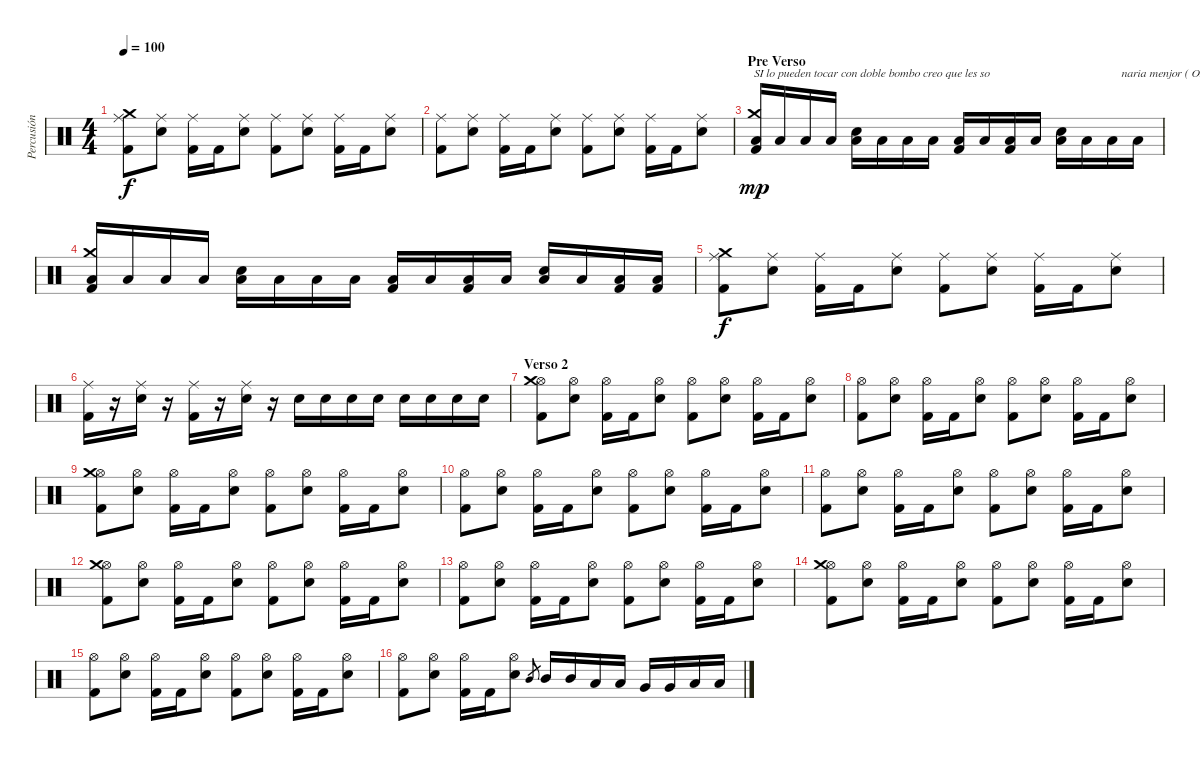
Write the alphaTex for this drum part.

\track ("Percusión" "Percusión") {instrument percussion}
\staff {score}
\articulation defaults
\ts (4 4)
\tempo 100
\clef neutral
\ks c
("Kick (hit) 2" "Ride (middle)" "Crash medium (hit)").8{dy f} ("Snare (hit) 2" "Ride (middle)").8 ("Kick (hit) 2" "Ride (middle)").16 "Kick (hit) 2".16 ("Snare (hit) 2" "Ride (middle)").8 ("Kick (hit) 2" "Ride (middle)").8 ("Snare (hit) 2" "Ride (middle)").8 ("Kick (hit) 2" "Ride (middle)").16 "Kick (hit) 2".16 ("Snare (hit) 2" "Ride (middle)").8 |
("Kick (hit) 2" "Ride (middle)").8 ("Snare (hit) 2" "Ride (middle)").8 ("Kick (hit) 2" "Ride (middle)").16 "Kick (hit) 2".16 ("Snare (hit) 2" "Ride (middle)").8 ("Kick (hit) 2" "Ride (middle)").8 ("Snare (hit) 2" "Ride (middle)").8 ("Kick (hit) 2" "Ride (middle)").16 "Kick (hit) 2".16 ("Snare (hit) 2" "Ride (middle)").8 |
\section ("" "Pre Verso")
("Kick (hit) 2" "Crash medium (hit)" "Low Floor Tom (hit)").16{txt "SI lo pueden tocar con doble bombo creo que les so" dy mp} "Low Floor Tom (hit)".16 "Low Floor Tom (hit)".16 "Low Floor Tom (hit)".16 ("Snare (hit) 2" "Low Floor Tom (hit)").16 "Low Floor Tom (hit)".16 "Low Floor Tom (hit)".16 "Low Floor Tom (hit)".16 ("Kick (hit) 2" "Low Floor Tom (hit)").16 "Low Floor Tom (hit)".16 ("Kick (hit) 2" "Low Floor Tom (hit)").16 "Low Floor Tom (hit)".16 ("Snare (hit) 2" "Low Floor Tom (hit)").16 "Low Floor Tom (hit)".16 "Low Floor Tom (hit)".16{txt "   naria menjor ( OPCIONAL)"} "Low Floor Tom (hit)".16 |
("Kick (hit) 2" "Crash medium (hit)" "Low Floor Tom (hit)").16 "Low Floor Tom (hit)".16 "Low Floor Tom (hit)".16 "Low Floor Tom (hit)".16 ("Snare (hit) 2" "Low Floor Tom (hit)").16 "Low Floor Tom (hit)".16 "Low Floor Tom (hit)".16 "Low Floor Tom (hit)".16 ("Kick (hit) 2" "Low Floor Tom (hit)").16 "Low Floor Tom (hit)".16 ("Kick (hit) 2" "Low Floor Tom (hit)").16 "Low Floor Tom (hit)".16 ("Snare (hit) 2" "Low Floor Tom (hit)").16 "Low Floor Tom (hit)".16 ("Kick (hit) 2" "Low Floor Tom (hit)").16 ("Kick (hit) 2" "Low Floor Tom (hit)").16 |
("Kick (hit) 2" "Ride (middle)" "Crash medium (hit)").8{dy f} ("Snare (hit) 2" "Ride (middle)").8 ("Kick (hit) 2" "Ride (middle)").16 "Kick (hit) 2".16 ("Snare (hit) 2" "Ride (middle)").8 ("Kick (hit) 2" "Ride (middle)").8 ("Snare (hit) 2" "Ride (middle)").8 ("Kick (hit) 2" "Ride (middle)").16 "Kick (hit) 2".16 ("Snare (hit) 2" "Ride (middle)").8 |
("Kick (hit) 2" "Ride (middle)").16 r.16 ("Snare (hit) 2" "Ride (middle)").16 r.16 ("Ride (middle)" "Kick (hit) 2").16 r.16 ("Ride (middle)" "Snare (hit) 2").16 r.16 "Snare (hit) 2".16 "Snare (hit) 2".16 "Snare (hit) 2".16 "Snare (hit) 2".16 "Snare (hit) 2".16 "Snare (hit) 2".16 "Snare (hit) 2".16 "Snare (hit) 2".16 |
\section ("" "Verso 2")
("Kick (hit) 2" "Hi-Hat (open)" "Crash medium (hit)").8 ("Snare (hit) 2" "Hi-Hat (open)").8 ("Kick (hit) 2" "Hi-Hat (open)").16 "Kick (hit) 2".16 ("Snare (hit) 2" "Hi-Hat (open)").8 ("Kick (hit) 2" "Hi-Hat (open)").8 ("Snare (hit) 2" "Hi-Hat (open)").8 ("Kick (hit) 2" "Hi-Hat (open)").16 "Kick (hit) 2".16 ("Snare (hit) 2" "Hi-Hat (open)").8 |
("Kick (hit) 2" "Hi-Hat (open)").8 ("Snare (hit) 2" "Hi-Hat (open)").8 ("Kick (hit) 2" "Hi-Hat (open)").16 "Kick (hit) 2".16 ("Snare (hit) 2" "Hi-Hat (open)").8 ("Kick (hit) 2" "Hi-Hat (open)").8 ("Snare (hit) 2" "Hi-Hat (open)").8 ("Kick (hit) 2" "Hi-Hat (open)").16 "Kick (hit) 2".16 ("Snare (hit) 2" "Hi-Hat (open)").8 |
("Kick (hit) 2" "Hi-Hat (open)" "Crash medium (hit)").8 ("Snare (hit) 2" "Hi-Hat (open)").8 ("Kick (hit) 2" "Hi-Hat (open)").16 "Kick (hit) 2".16 ("Snare (hit) 2" "Hi-Hat (open)").8 ("Kick (hit) 2" "Hi-Hat (open)").8 ("Snare (hit) 2" "Hi-Hat (open)").8 ("Kick (hit) 2" "Hi-Hat (open)").16 "Kick (hit) 2".16 ("Snare (hit) 2" "Hi-Hat (open)").8 |
("Kick (hit) 2" "Hi-Hat (open)").8 ("Snare (hit) 2" "Hi-Hat (open)").8 ("Kick (hit) 2" "Hi-Hat (open)").16 "Kick (hit) 2".16 ("Snare (hit) 2" "Hi-Hat (open)").8 ("Kick (hit) 2" "Hi-Hat (open)").8 ("Snare (hit) 2" "Hi-Hat (open)").8 ("Kick (hit) 2" "Hi-Hat (open)").16 "Kick (hit) 2".16 ("Snare (hit) 2" "Hi-Hat (open)").8 |
("Kick (hit) 2" "Hi-Hat (open)").8 ("Snare (hit) 2" "Hi-Hat (open)").8 ("Kick (hit) 2" "Hi-Hat (open)").16 "Kick (hit) 2".16 ("Snare (hit) 2" "Hi-Hat (open)").8 ("Kick (hit) 2" "Hi-Hat (open)").8 ("Snare (hit) 2" "Hi-Hat (open)").8 ("Kick (hit) 2" "Hi-Hat (open)").16 "Kick (hit) 2".16 ("Snare (hit) 2" "Hi-Hat (open)").8 |
("Kick (hit) 2" "Hi-Hat (open)" "Crash medium (hit)").8 ("Snare (hit) 2" "Hi-Hat (open)").8 ("Kick (hit) 2" "Hi-Hat (open)").16 "Kick (hit) 2".16 ("Snare (hit) 2" "Hi-Hat (open)").8 ("Kick (hit) 2" "Hi-Hat (open)").8 ("Snare (hit) 2" "Hi-Hat (open)").8 ("Kick (hit) 2" "Hi-Hat (open)").16 "Kick (hit) 2".16 ("Snare (hit) 2" "Hi-Hat (open)").8 |
("Kick (hit) 2" "Hi-Hat (open)").8 ("Snare (hit) 2" "Hi-Hat (open)").8 ("Kick (hit) 2" "Hi-Hat (open)").16 "Kick (hit) 2".16 ("Snare (hit) 2" "Hi-Hat (open)").8 ("Kick (hit) 2" "Hi-Hat (open)").8 ("Snare (hit) 2" "Hi-Hat (open)").8 ("Kick (hit) 2" "Hi-Hat (open)").16 "Kick (hit) 2".16 ("Snare (hit) 2" "Hi-Hat (open)").8 |
("Kick (hit) 2" "Hi-Hat (open)" "Crash medium (hit)").8 ("Snare (hit) 2" "Hi-Hat (open)").8 ("Kick (hit) 2" "Hi-Hat (open)").16 "Kick (hit) 2".16 ("Snare (hit) 2" "Hi-Hat (open)").8 ("Kick (hit) 2" "Hi-Hat (open)").8 ("Snare (hit) 2" "Hi-Hat (open)").8 ("Kick (hit) 2" "Hi-Hat (open)").16 "Kick (hit) 2".16 ("Snare (hit) 2" "Hi-Hat (open)").8 |
("Kick (hit) 2" "Hi-Hat (open)").8 ("Snare (hit) 2" "Hi-Hat (open)").8 ("Kick (hit) 2" "Hi-Hat (open)").16 "Kick (hit) 2".16 ("Snare (hit) 2" "Hi-Hat (open)").8 ("Kick (hit) 2" "Hi-Hat (open)").8 ("Snare (hit) 2" "Hi-Hat (open)").8 ("Kick (hit) 2" "Hi-Hat (open)").16 "Kick (hit) 2".16 ("Snare (hit) 2" "Hi-Hat (open)").8 |
("Kick (hit) 2" "Hi-Hat (open)").8 ("Snare (hit) 2" "Hi-Hat (open)").8 ("Kick (hit) 2" "Hi-Hat (open)").16 "Kick (hit) 2".16 ("Snare (hit) 2" "Hi-Hat (open)").8 "Mid Tom (hit)".8{gr} "Mid Tom (hit)".16 "Mid Tom (hit)".16 "Low Tom (hit)".16 "Low Tom (hit)".16 "Very Low Tom (hit)".16 "Very Low Tom (hit)".16 "Low Floor Tom (hit)".16 "Low Floor Tom (hit)".16
